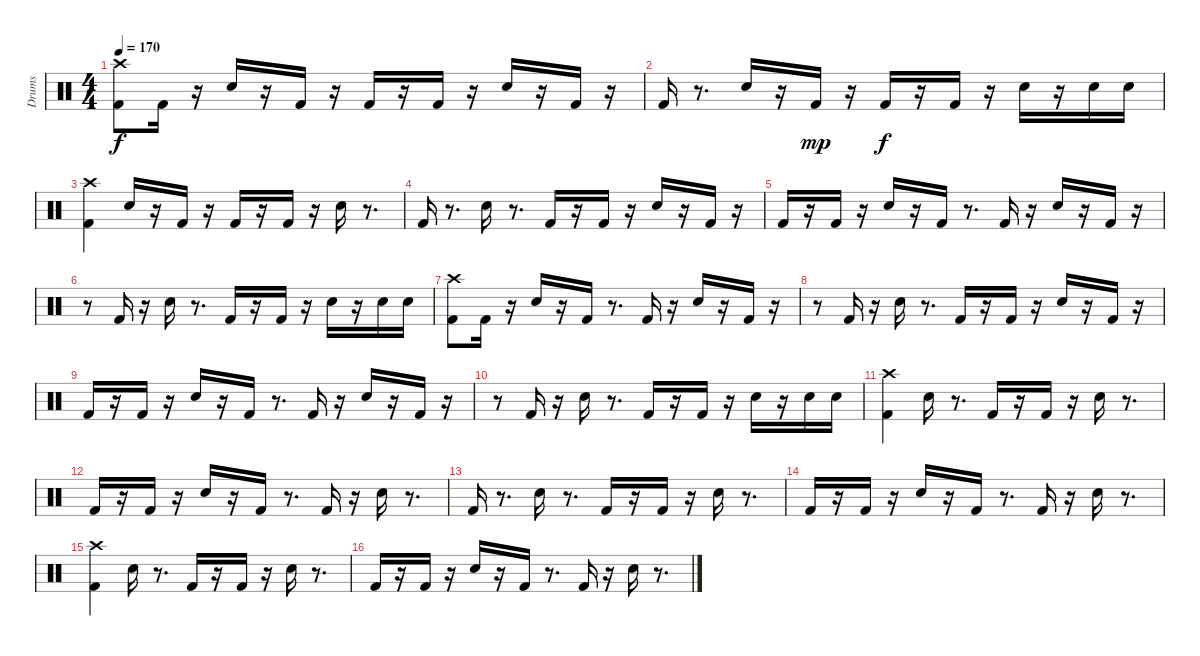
\track ("Drums" "Drums") {instrument percussion}
\staff {score}
\articulation defaults
\ts (4 4)
\tempo 170
\clef neutral
\ks c
("Crash high (hit)" "Kick (hit) 2").8{dy f} "Kick (hit) 2".16 r.16 "Electric Snare (hit)".16 r.16 "Kick (hit) 2".16 r.16 "Kick (hit) 2".16 r.16 "Kick (hit) 2".16 r.16 "Electric Snare (hit)".16 r.16 "Kick (hit) 2".16 r.16 |
"Kick (hit) 2".16 r.8{d} "Electric Snare (hit)".16 r.16 "Kick (hit) 2".16{dy mp} r.16 "Kick (hit) 2".16{dy f} r.16 "Kick (hit) 2".16 r.16 "Electric Snare (hit)".16 r.16 "Electric Snare (hit)".16 "Electric Snare (hit)".16 |
("Crash high (hit)" "Kick (hit) 2").4 "Electric Snare (hit)".16 r.16 "Kick (hit) 2".16 r.16 "Kick (hit) 2".16 r.16 "Kick (hit) 2".16 r.16 "Electric Snare (hit)".16 r.8{d} |
"Kick (hit) 2".16 r.8{d} "Electric Snare (hit)".16 r.8{d} "Kick (hit) 2".16 r.16 "Kick (hit) 2".16 r.16 "Electric Snare (hit)".16 r.16 "Kick (hit) 2".16 r.16 |
"Kick (hit) 2".16 r.16 "Kick (hit) 2".16 r.16 "Electric Snare (hit)".16 r.16 "Kick (hit) 2".16 r.8{d} "Kick (hit) 2".16 r.16 "Electric Snare (hit)".16 r.16 "Kick (hit) 2".16 r.16 |
r.8 "Kick (hit) 2".16 r.16 "Electric Snare (hit)".16 r.8{d} "Kick (hit) 2".16 r.16 "Kick (hit) 2".16 r.16 "Electric Snare (hit)".16 r.16 "Electric Snare (hit)".16 "Electric Snare (hit)".16 |
("Crash high (hit)" "Kick (hit) 2").8 "Kick (hit) 2".16 r.16 "Electric Snare (hit)".16 r.16 "Kick (hit) 2".16 r.8{d} "Kick (hit) 2".16 r.16 "Electric Snare (hit)".16 r.16 "Kick (hit) 2".16 r.16 |
r.8 "Kick (hit) 2".16 r.16 "Electric Snare (hit)".16 r.8{d} "Kick (hit) 2".16 r.16 "Kick (hit) 2".16 r.16 "Electric Snare (hit)".16 r.16 "Kick (hit) 2".16 r.16 |
"Kick (hit) 2".16 r.16 "Kick (hit) 2".16 r.16 "Electric Snare (hit)".16 r.16 "Kick (hit) 2".16 r.8{d} "Kick (hit) 2".16 r.16 "Electric Snare (hit)".16 r.16 "Kick (hit) 2".16 r.16 |
r.8 "Kick (hit) 2".16 r.16 "Electric Snare (hit)".16 r.8{d} "Kick (hit) 2".16 r.16 "Kick (hit) 2".16 r.16 "Electric Snare (hit)".16 r.16 "Electric Snare (hit)".16 "Electric Snare (hit)".16 |
("Crash high (hit)" "Kick (hit) 2").4 "Electric Snare (hit)".16 r.8{d} "Kick (hit) 2".16 r.16 "Kick (hit) 2".16 r.16 "Electric Snare (hit)".16 r.8{d} |
"Kick (hit) 2".16 r.16 "Kick (hit) 2".16 r.16 "Electric Snare (hit)".16 r.16 "Kick (hit) 2".16 r.8{d} "Kick (hit) 2".16 r.16 "Electric Snare (hit)".16 r.8{d} |
"Kick (hit) 2".16 r.8{d} "Electric Snare (hit)".16 r.8{d} "Kick (hit) 2".16 r.16 "Kick (hit) 2".16 r.16 "Electric Snare (hit)".16 r.8{d} |
"Kick (hit) 2".16 r.16 "Kick (hit) 2".16 r.16 "Electric Snare (hit)".16 r.16 "Kick (hit) 2".16 r.8{d} "Kick (hit) 2".16 r.16 "Electric Snare (hit)".16 r.8{d} |
("Crash high (hit)" "Kick (hit) 2").4 "Electric Snare (hit)".16 r.8{d} "Kick (hit) 2".16 r.16 "Kick (hit) 2".16 r.16 "Electric Snare (hit)".16 r.8{d} |
"Kick (hit) 2".16 r.16 "Kick (hit) 2".16 r.16 "Electric Snare (hit)".16 r.16 "Kick (hit) 2".16 r.8{d} "Kick (hit) 2".16 r.16 "Electric Snare (hit)".16 r.8{d}
